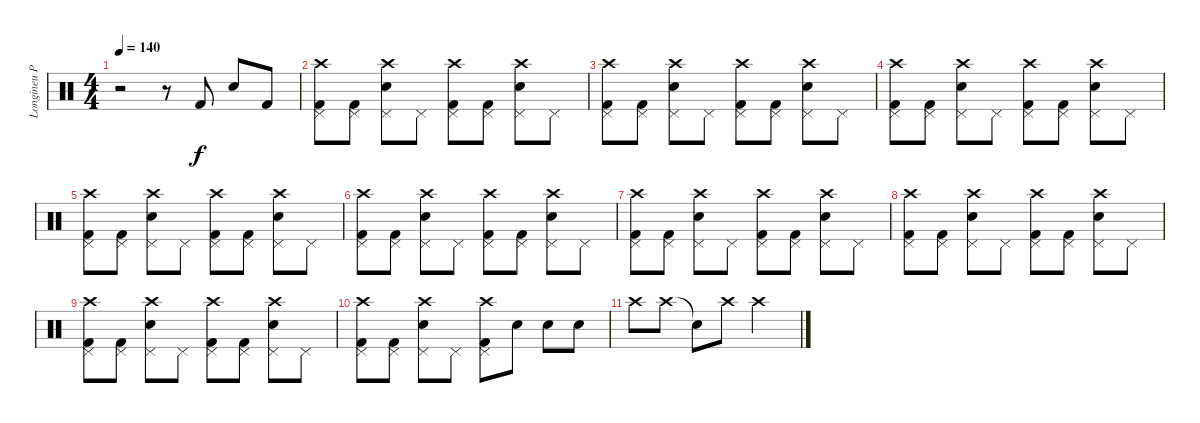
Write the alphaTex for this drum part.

\track ("Longineu Parsons III Drums" "Longineu P") {instrument percussion}
\staff {score}
\articulation defaults
\ts (4 4)
\tempo 140
\clef neutral
\ks c
r.2{dy f} r.8 "Kick (hit) 2".8 "Snare (hit) 2".8 "Kick (hit) 2".8 |
("Kick (hit) 2" "Pedal Hi-Hat (hit)" "Crash high (hit)").8 ("Kick (hit) 2" "Pedal Hi-Hat (hit)").8 ("Snare (hit) 2" "Pedal Hi-Hat (hit)" "Crash high (hit)").8 "Pedal Hi-Hat (hit)".8 ("Kick (hit) 2" "Pedal Hi-Hat (hit)" "Crash high (hit)").8 ("Kick (hit) 2" "Pedal Hi-Hat (hit)").8 ("Snare (hit) 2" "Pedal Hi-Hat (hit)" "Crash high (hit)").8 "Pedal Hi-Hat (hit)".8 |
("Kick (hit) 2" "Pedal Hi-Hat (hit)" "Crash high (hit)").8 ("Kick (hit) 2" "Pedal Hi-Hat (hit)").8 ("Snare (hit) 2" "Pedal Hi-Hat (hit)" "Crash high (hit)").8 "Pedal Hi-Hat (hit)".8 ("Kick (hit) 2" "Pedal Hi-Hat (hit)" "Crash high (hit)").8 ("Kick (hit) 2" "Pedal Hi-Hat (hit)").8 ("Snare (hit) 2" "Pedal Hi-Hat (hit)" "Crash high (hit)").8 "Pedal Hi-Hat (hit)".8 |
("Kick (hit) 2" "Pedal Hi-Hat (hit)" "Crash high (hit)").8 ("Kick (hit) 2" "Pedal Hi-Hat (hit)").8 ("Snare (hit) 2" "Pedal Hi-Hat (hit)" "Crash high (hit)").8 "Pedal Hi-Hat (hit)".8 ("Kick (hit) 2" "Pedal Hi-Hat (hit)" "Crash high (hit)").8 ("Kick (hit) 2" "Pedal Hi-Hat (hit)").8 ("Snare (hit) 2" "Pedal Hi-Hat (hit)" "Crash high (hit)").8 "Pedal Hi-Hat (hit)".8 |
("Kick (hit) 2" "Pedal Hi-Hat (hit)" "Crash high (hit)").8 ("Kick (hit) 2" "Pedal Hi-Hat (hit)").8 ("Snare (hit) 2" "Pedal Hi-Hat (hit)" "Crash high (hit)").8 "Pedal Hi-Hat (hit)".8 ("Kick (hit) 2" "Pedal Hi-Hat (hit)" "Crash high (hit)").8 ("Kick (hit) 2" "Pedal Hi-Hat (hit)").8 ("Snare (hit) 2" "Pedal Hi-Hat (hit)" "Crash high (hit)").8 "Pedal Hi-Hat (hit)".8 |
("Kick (hit) 2" "Pedal Hi-Hat (hit)" "Crash high (hit)").8 ("Kick (hit) 2" "Pedal Hi-Hat (hit)").8 ("Snare (hit) 2" "Pedal Hi-Hat (hit)" "Crash high (hit)").8 "Pedal Hi-Hat (hit)".8 ("Kick (hit) 2" "Pedal Hi-Hat (hit)" "Crash high (hit)").8 ("Kick (hit) 2" "Pedal Hi-Hat (hit)").8 ("Snare (hit) 2" "Pedal Hi-Hat (hit)" "Crash high (hit)").8 "Pedal Hi-Hat (hit)".8 |
("Kick (hit) 2" "Pedal Hi-Hat (hit)" "Crash high (hit)").8 ("Kick (hit) 2" "Pedal Hi-Hat (hit)").8 ("Snare (hit) 2" "Pedal Hi-Hat (hit)" "Crash high (hit)").8 "Pedal Hi-Hat (hit)".8 ("Kick (hit) 2" "Pedal Hi-Hat (hit)" "Crash high (hit)").8 ("Kick (hit) 2" "Pedal Hi-Hat (hit)").8 ("Snare (hit) 2" "Pedal Hi-Hat (hit)" "Crash high (hit)").8 "Pedal Hi-Hat (hit)".8 |
("Kick (hit) 2" "Pedal Hi-Hat (hit)" "Crash high (hit)").8 ("Kick (hit) 2" "Pedal Hi-Hat (hit)").8 ("Snare (hit) 2" "Pedal Hi-Hat (hit)" "Crash high (hit)").8 "Pedal Hi-Hat (hit)".8 ("Kick (hit) 2" "Pedal Hi-Hat (hit)" "Crash high (hit)").8 ("Kick (hit) 2" "Pedal Hi-Hat (hit)").8 ("Snare (hit) 2" "Pedal Hi-Hat (hit)" "Crash high (hit)").8 "Pedal Hi-Hat (hit)".8 |
("Kick (hit) 2" "Pedal Hi-Hat (hit)" "Crash high (hit)").8 ("Kick (hit) 2" "Pedal Hi-Hat (hit)").8 ("Snare (hit) 2" "Pedal Hi-Hat (hit)" "Crash high (hit)").8 "Pedal Hi-Hat (hit)".8 ("Kick (hit) 2" "Pedal Hi-Hat (hit)" "Crash high (hit)").8 ("Kick (hit) 2" "Pedal Hi-Hat (hit)").8 ("Snare (hit) 2" "Pedal Hi-Hat (hit)" "Crash high (hit)").8 "Pedal Hi-Hat (hit)".8 |
("Kick (hit) 2" "Pedal Hi-Hat (hit)" "Crash high (hit)").8 ("Kick (hit) 2" "Pedal Hi-Hat (hit)").8 ("Snare (hit) 2" "Pedal Hi-Hat (hit)" "Crash high (hit)").8 "Pedal Hi-Hat (hit)".8 ("Kick (hit) 2" "Pedal Hi-Hat (hit)" "Crash high (hit)").8 "Snare (hit) 2".8 "Snare (hit) 2".8 "Snare (hit) 2".8 |
"Crash high (hit)".8 "Crash high (hit)".8 "Snare (hit)"{t}.8 "Crash high (hit)".8 "Crash high (hit)".2
